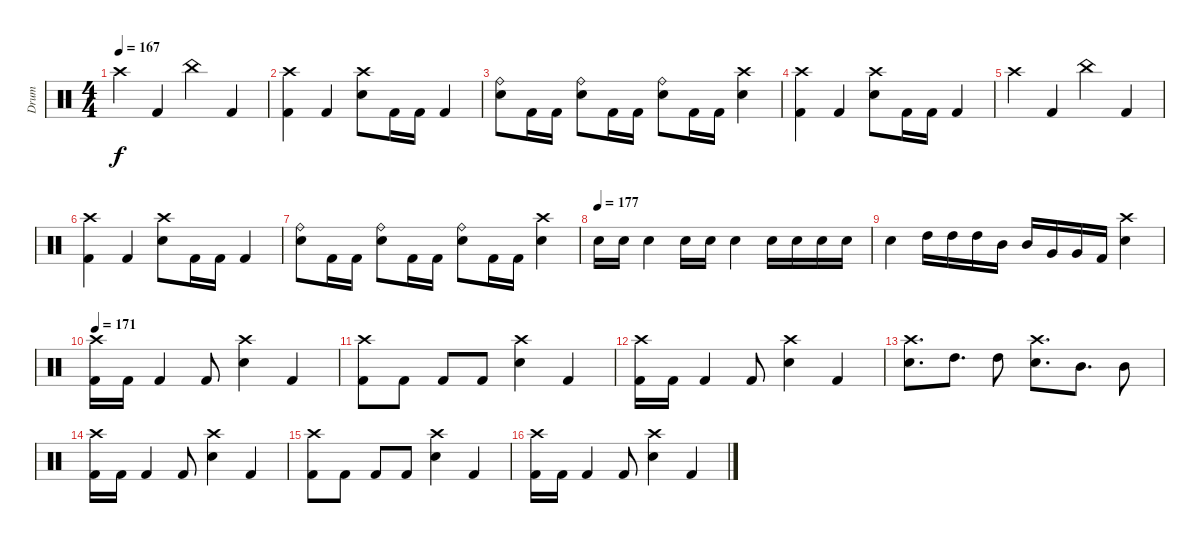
\track ("Drum" "Drum") {instrument percussion}
\staff {score}
\articulation defaults
\ts (4 4)
\tempo 167
\clef neutral
\ks c "Crash high (hit)".4{dy f} "Kick (hit) 2".4 "China (hit)".4 "Kick (hit) 2".4
|
("Crash high (hit)" "Kick (hit) 2").4 "Kick (hit) 2".4 ("Crash high (hit)" "Electric Snare (hit)").8 "Kick (hit) 2".16 "Kick (hit) 2".16 "Kick (hit) 2".4 |
("Ride (bell)" "Electric Snare (hit)").8 "Kick (hit) 2".16 "Kick (hit) 2".16 ("Ride (bell)" "Electric Snare (hit)").8 "Kick (hit) 2".16 "Kick (hit) 2".16 ("Ride (bell)" "Electric Snare (hit)").8 "Kick (hit) 2".16 "Kick (hit) 2".16 ("Crash high (hit)" "Electric Snare (hit)").4 |
("Crash high (hit)" "Kick (hit) 2").4 "Kick (hit) 2".4 ("Crash high (hit)" "Electric Snare (hit)").8 "Kick (hit) 2".16 "Kick (hit) 2".16 "Kick (hit) 2".4 |
"Crash high (hit)".4 "Kick (hit) 2".4 "China (hit)".4 "Kick (hit) 2".4 |
("Crash high (hit)" "Kick (hit) 2").4 "Kick (hit) 2".4 ("Crash high (hit)" "Electric Snare (hit)").8 "Kick (hit) 2".16 "Kick (hit) 2".16 "Kick (hit) 2".4 |
("Ride (bell)" "Electric Snare (hit)").8 "Kick (hit) 2".16 "Kick (hit) 2".16 ("Ride (bell)" "Electric Snare (hit)").8 "Kick (hit) 2".16 "Kick (hit) 2".16 ("Ride (bell)" "Electric Snare (hit)").8 "Kick (hit) 2".16 "Kick (hit) 2".16 ("Crash high (hit)" "Electric Snare (hit)").4 |
\tempo (177)
"Electric Snare (hit)".16 "Electric Snare (hit)".16 "Electric Snare (hit)".4 "Electric Snare (hit)".16 "Electric Snare (hit)".16 "Electric Snare (hit)".4 "Electric Snare (hit)".16 "Electric Snare (hit)".16 "Electric Snare (hit)".16 "Electric Snare (hit)".16 |
"Electric Snare (hit)".4 "High Tom (hit)".16 "High Tom (hit)".16 "High Tom (hit)".16 "Mid Tom (hit)".16 "Mid Tom (hit)".16 "Very Low Tom (hit)".16 "Very Low Tom (hit)".16 "Kick (hit) 2".16 ("Crash high (hit)" "Electric Snare (hit)").4 |
\tempo 171
("Crash high (hit)" "Kick (hit) 2").16 "Kick (hit) 2".16 "Kick (hit) 2".4 "Kick (hit) 2".8 ("Crash high (hit)" "Electric Snare (hit)").4 "Kick (hit) 2".4 |
("Crash high (hit)" "Kick (hit) 2").8 "Kick (hit) 2".8 "Kick (hit) 2".8 "Kick (hit) 2".8 ("Crash high (hit)" "Electric Snare (hit)").4 "Kick (hit) 2".4 |
("Crash high (hit)" "Kick (hit) 2").16 "Kick (hit) 2".16 "Kick (hit) 2".4 "Kick (hit) 2".8 ("Crash high (hit)" "Electric Snare (hit)").4 "Kick (hit) 2".4 |
("Crash high (hit)" "Electric Snare (hit)").8{d} "High Tom (hit)".8{d} "High Tom (hit)".8 ("Crash high (hit)" "Electric Snare (hit)").8{d} "Mid Tom (hit)".8{d} "Mid Tom (hit)".8 |
("Crash high (hit)" "Kick (hit) 2").16 "Kick (hit) 2".16 "Kick (hit) 2".4 "Kick (hit) 2".8 ("Crash high (hit)" "Electric Snare (hit)").4 "Kick (hit) 2".4 |
("Crash high (hit)" "Kick (hit) 2").8 "Kick (hit) 2".8 "Kick (hit) 2".8 "Kick (hit) 2".8 ("Crash high (hit)" "Electric Snare (hit)").4 "Kick (hit) 2".4 |
("Crash high (hit)" "Kick (hit) 2").16 "Kick (hit) 2".16 "Kick (hit) 2".4 "Kick (hit) 2".8 ("Crash high (hit)" "Electric Snare (hit)").4 "Kick (hit) 2".4
